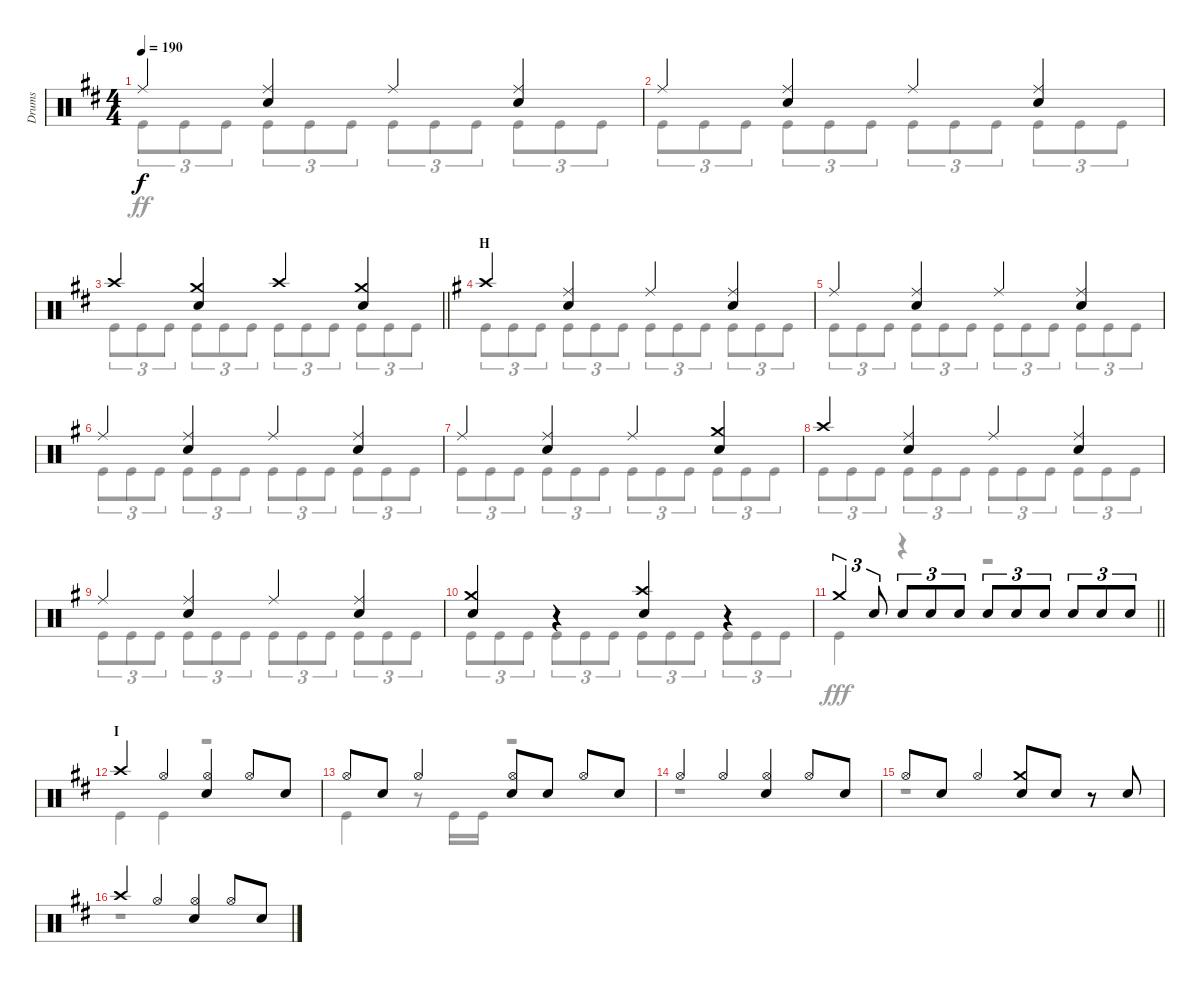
\track ("Drums" "Drums") {instrument percussion}
\staff {score}
\articulation defaults
\voice
\ts (4 4)
\tempo 190
\clef neutral
\ks d "Ride (middle)".4{dy f}
("Ride (middle)" "Snare (hit) 2").4 "Ride (middle)".4 ("Ride (middle)" "Snare (hit) 2").4 |
"Ride (middle)".4 ("Ride (middle)" "Snare (hit) 2").4 "Ride (middle)".4 ("Ride (middle)" "Snare (hit) 2").4 |
\barLineRight lightlight "Crash high (hit)".4
("Crash medium (hit)" "Snare (hit) 2").4 "Crash high (hit)".4 ("Crash medium (hit)" "Snare (hit) 2").4 |
\section ("" "H")
\ks g "Crash high (hit)".4
("Ride (middle)" "Snare (hit) 2").4 "Ride (middle)".4 ("Ride (middle)" "Snare (hit) 2").4 |
"Ride (middle)".4 ("Ride (middle)" "Snare (hit) 2").4 "Ride (middle)".4 ("Ride (middle)" "Snare (hit) 2").4 |
"Ride (middle)".4 ("Ride (middle)" "Snare (hit) 2").4 "Ride (middle)".4 ("Ride (middle)" "Snare (hit) 2").4 |
"Ride (middle)".4 ("Ride (middle)" "Snare (hit) 2").4 "Ride (middle)".4 ("Crash medium (hit)" "Snare (hit) 2").4 |
"Crash high (hit)".4 ("Ride (middle)" "Snare (hit) 2").4 "Ride (middle)".4 ("Ride (middle)" "Snare (hit) 2").4 |
"Ride (middle)".4 ("Ride (middle)" "Snare (hit) 2").4 "Ride (middle)".4 ("Ride (middle)" "Snare (hit) 2").4 |
("Crash medium (hit)" "Snare (hit) 2").4 r.4 ("Crash high (hit)" "Snare (hit) 2").4 r.4 |
\barLineRight lightlight "Crash medium (hit)".4{tu (3 2)} "Snare (hit) 2".8{tu (3 2)} "Snare (hit) 2".8{tu (3 2)} "Snare (hit) 2".8{tu (3 2)} "Snare (hit) 2".8{tu (3 2)} "Snare (hit) 2".8{tu (3 2)} "Snare (hit) 2".8{tu (3 2)} "Snare (hit) 2".8{tu (3 2)} "Snare (hit) 2".8{tu (3 2)} "Snare (hit) 2".8{tu (3 2)} "Snare (hit) 2".8{tu (3 2)}
|
\section ("" "I")
\ks d "Crash high (hit)".4 "Hi-Hat (open)".4
("Hi-Hat (open)" "Snare (hit) 2").4 "Hi-Hat (open)".8 "Snare (hit) 2".8 |
"Hi-Hat (open)".8 "Snare (hit) 2".8 "Hi-Hat (open)".4 ("Hi-Hat (open)" "Snare (hit) 2").8 "Snare (hit) 2".8 "Hi-Hat (open)".8 "Snare (hit) 2".8 |
"Hi-Hat (open)".4 "Hi-Hat (open)".4 ("Hi-Hat (open)" "Snare (hit) 2").4 "Hi-Hat (open)".8 "Snare (hit) 2".8 |
"Hi-Hat (open)".8 "Snare (hit) 2".8 "Hi-Hat (open)".4 ("Crash medium (hit)" "Snare (hit) 2").8 "Snare (hit) 2".8 r.8 "Snare (hit) 2".8 |
"Crash high (hit)".4 "Hi-Hat (open)".4 ("Hi-Hat (open)" "Snare (hit) 2").4 "Hi-Hat (open)".8 "Snare (hit) 2".8
\voice
\clef neutral
\ottava regular
\simile none
\ks d "Kick (hit)".8{tu (3 2) dy ff} "Kick (hit)".8{tu (3 2)} "Kick (hit)".8{tu (3 2)} "Kick (hit)".8{tu (3 2)} "Kick (hit)".8{tu (3 2)} "Kick (hit)".8{tu (3 2)} "Kick (hit)".8{tu (3 2)} "Kick (hit)".8{tu (3 2)} "Kick (hit)".8{tu (3 2)} "Kick (hit)".8{tu (3 2)} "Kick (hit)".8{tu (3 2)} "Kick (hit)".8{tu (3 2)}
|
"Kick (hit)".8{tu (3 2)} "Kick (hit)".8{tu (3 2)} "Kick (hit)".8{tu (3 2)} "Kick (hit)".8{tu (3 2)} "Kick (hit)".8{tu (3 2)} "Kick (hit)".8{tu (3 2)} "Kick (hit)".8{tu (3 2)} "Kick (hit)".8{tu (3 2)} "Kick (hit)".8{tu (3 2)} "Kick (hit)".8{tu (3 2)} "Kick (hit)".8{tu (3 2)} "Kick (hit)".8{tu (3 2)} |
\barLineRight lightlight "Kick (hit)".8{tu (3 2)} "Kick (hit)".8{tu (3 2)} "Kick (hit)".8{tu (3 2)} "Kick (hit)".8{tu (3 2)} "Kick (hit)".8{tu (3 2)} "Kick (hit)".8{tu (3 2)} "Kick (hit)".8{tu (3 2)} "Kick (hit)".8{tu (3 2)} "Kick (hit)".8{tu (3 2)} "Kick (hit)".8{tu (3 2)} "Kick (hit)".8{tu (3 2)} "Kick (hit)".8{tu (3 2)}
|
\ks g "Kick (hit)".8{tu (3 2)} "Kick (hit)".8{tu (3 2)} "Kick (hit)".8{tu (3 2)} "Kick (hit)".8{tu (3 2)} "Kick (hit)".8{tu (3 2)} "Kick (hit)".8{tu (3 2)} "Kick (hit)".8{tu (3 2)} "Kick (hit)".8{tu (3 2)} "Kick (hit)".8{tu (3 2)} "Kick (hit)".8{tu (3 2)} "Kick (hit)".8{tu (3 2)} "Kick (hit)".8{tu (3 2)}
|
"Kick (hit)".8{tu (3 2)} "Kick (hit)".8{tu (3 2)} "Kick (hit)".8{tu (3 2)} "Kick (hit)".8{tu (3 2)} "Kick (hit)".8{tu (3 2)} "Kick (hit)".8{tu (3 2)} "Kick (hit)".8{tu (3 2)} "Kick (hit)".8{tu (3 2)} "Kick (hit)".8{tu (3 2)} "Kick (hit)".8{tu (3 2)} "Kick (hit)".8{tu (3 2)} "Kick (hit)".8{tu (3 2)} |
"Kick (hit)".8{tu (3 2)} "Kick (hit)".8{tu (3 2)} "Kick (hit)".8{tu (3 2)} "Kick (hit)".8{tu (3 2)} "Kick (hit)".8{tu (3 2)} "Kick (hit)".8{tu (3 2)} "Kick (hit)".8{tu (3 2)} "Kick (hit)".8{tu (3 2)} "Kick (hit)".8{tu (3 2)} "Kick (hit)".8{tu (3 2)} "Kick (hit)".8{tu (3 2)} "Kick (hit)".8{tu (3 2)} |
"Kick (hit)".8{tu (3 2)} "Kick (hit)".8{tu (3 2)} "Kick (hit)".8{tu (3 2)} "Kick (hit)".8{tu (3 2)} "Kick (hit)".8{tu (3 2)} "Kick (hit)".8{tu (3 2)} "Kick (hit)".8{tu (3 2)} "Kick (hit)".8{tu (3 2)} "Kick (hit)".8{tu (3 2)} "Kick (hit)".8{tu (3 2)} "Kick (hit)".8{tu (3 2)} "Kick (hit)".8{tu (3 2)} |
"Kick (hit)".8{tu (3 2)} "Kick (hit)".8{tu (3 2)} "Kick (hit)".8{tu (3 2)} "Kick (hit)".8{tu (3 2)} "Kick (hit)".8{tu (3 2)} "Kick (hit)".8{tu (3 2)} "Kick (hit)".8{tu (3 2)} "Kick (hit)".8{tu (3 2)} "Kick (hit)".8{tu (3 2)} "Kick (hit)".8{tu (3 2)} "Kick (hit)".8{tu (3 2)} "Kick (hit)".8{tu (3 2)} |
"Kick (hit)".8{tu (3 2)} "Kick (hit)".8{tu (3 2)} "Kick (hit)".8{tu (3 2)} "Kick (hit)".8{tu (3 2)} "Kick (hit)".8{tu (3 2)} "Kick (hit)".8{tu (3 2)} "Kick (hit)".8{tu (3 2)} "Kick (hit)".8{tu (3 2)} "Kick (hit)".8{tu (3 2)} "Kick (hit)".8{tu (3 2)} "Kick (hit)".8{tu (3 2)} "Kick (hit)".8{tu (3 2)} |
"Kick (hit)".8{tu (3 2)} "Kick (hit)".8{tu (3 2)} "Kick (hit)".8{tu (3 2)} "Kick (hit)".8{tu (3 2)} "Kick (hit)".8{tu (3 2)} "Kick (hit)".8{tu (3 2)} "Kick (hit)".8{tu (3 2)} "Kick (hit)".8{tu (3 2)} "Kick (hit)".8{tu (3 2)} "Kick (hit)".8{tu (3 2)} "Kick (hit)".8{tu (3 2)} "Kick (hit)".8{tu (3 2)} |
\barLineRight lightlight "Kick (hit)".4{dy fff}
r.4 r.2 |
\ks d "Kick (hit)".4 "Kick (hit)".4
r.2 |
"Kick (hit)".4 r.8 "Kick (hit)".16 "Kick (hit)".16 r.2 |
r.1 |
r.1 |
r.1
